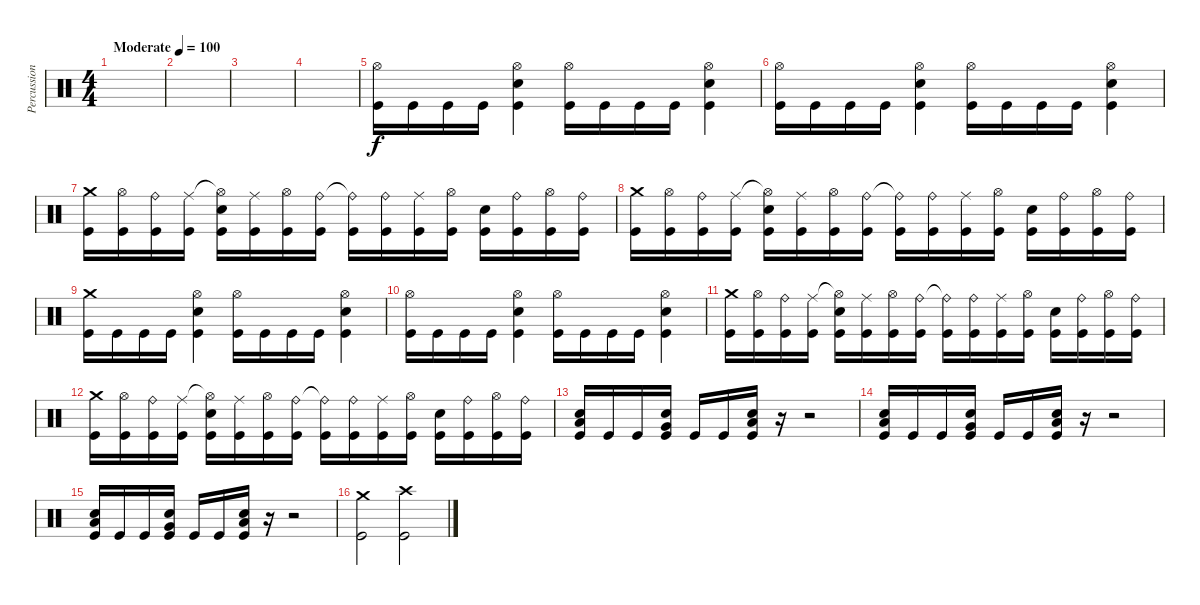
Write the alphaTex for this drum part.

\track ("Percussion" "Percussion") {instrument percussion}
\staff {score}
\articulation defaults
\ts (4 4)
\tempo (100 "Moderate")
\clef neutral
\ks c
|
|
|
|
("Hi-Hat (open)" "Kick (hit)").16 "Kick (hit)".16 "Kick (hit)".16 "Kick (hit)".16 ("Hi-Hat (open)" "Snare (hit) 2" "Kick (hit)").4 ("Hi-Hat (open)" "Kick (hit)").16 "Kick (hit)".16 "Kick (hit)".16 "Kick (hit)".16 ("Hi-Hat (open)" "Snare (hit) 2" "Kick (hit)").4 |
("Hi-Hat (open)" "Kick (hit)").16 "Kick (hit)".16 "Kick (hit)".16 "Kick (hit)".16 ("Hi-Hat (open)" "Snare (hit) 2" "Kick (hit)").4 ("Hi-Hat (open)" "Kick (hit)").16 "Kick (hit)".16 "Kick (hit)".16 "Kick (hit)".16 ("Hi-Hat (open)" "Snare (hit) 2" "Kick (hit)").4 |
("Crash medium (hit)" "Kick (hit)").16 ("Hi-Hat (open)" "Kick (hit)").16 ("Ride (bell)" "Kick (hit)").16 ("Ride (middle)" "Kick (hit)").16 ("Hi-Hat (open)"{t} "Snare (hit) 2" "Kick (hit)").16 ("Ride (middle)" "Kick (hit)").16 ("Hi-Hat (open)" "Kick (hit)").16 ("Ride (bell)" "Kick (hit)").16 ("Ride (bell)"{t} "Kick (hit)").16 ("Ride (bell)" "Kick (hit)").16 ("Ride (middle)" "Kick (hit)").16 ("Hi-Hat (open)" "Kick (hit)").16 ("Snare (hit) 2" "Kick (hit)").16 ("Ride (bell)" "Kick (hit)").16 ("Hi-Hat (open)" "Kick (hit)").16 ("Ride (bell)" "Kick (hit)").16 |
("Crash medium (hit)" "Kick (hit)").16 ("Hi-Hat (open)" "Kick (hit)").16 ("Ride (bell)" "Kick (hit)").16 ("Ride (middle)" "Kick (hit)").16 ("Hi-Hat (open)"{t} "Snare (hit) 2" "Kick (hit)").16 ("Ride (middle)" "Kick (hit)").16 ("Hi-Hat (open)" "Kick (hit)").16 ("Ride (bell)" "Kick (hit)").16 ("Ride (bell)"{t} "Kick (hit)").16 ("Ride (bell)" "Kick (hit)").16 ("Ride (middle)" "Kick (hit)").16 ("Hi-Hat (open)" "Kick (hit)").16 ("Snare (hit) 2" "Kick (hit)").16 ("Ride (bell)" "Kick (hit)").16 ("Hi-Hat (open)" "Kick (hit)").16 ("Ride (bell)" "Kick (hit)").16 |
("Crash medium (hit)" "Kick (hit)").16 "Kick (hit)".16 "Kick (hit)".16 "Kick (hit)".16 ("Hi-Hat (open)" "Snare (hit) 2" "Kick (hit)").4 ("Hi-Hat (open)" "Kick (hit)").16 "Kick (hit)".16 "Kick (hit)".16 "Kick (hit)".16 ("Hi-Hat (open)" "Snare (hit) 2" "Kick (hit)").4 |
("Hi-Hat (open)" "Kick (hit)").16 "Kick (hit)".16 "Kick (hit)".16 "Kick (hit)".16 ("Hi-Hat (open)" "Snare (hit) 2" "Kick (hit)").4 ("Hi-Hat (open)" "Kick (hit)").16 "Kick (hit)".16 "Kick (hit)".16 "Kick (hit)".16 ("Hi-Hat (open)" "Snare (hit) 2" "Kick (hit)").4 |
("Crash medium (hit)" "Kick (hit)").16 ("Hi-Hat (open)" "Kick (hit)").16 ("Ride (bell)" "Kick (hit)").16 ("Ride (middle)" "Kick (hit)").16 ("Hi-Hat (open)"{t} "Snare (hit) 2" "Kick (hit)").16 ("Ride (middle)" "Kick (hit)").16 ("Hi-Hat (open)" "Kick (hit)").16 ("Ride (bell)" "Kick (hit)").16 ("Ride (bell)"{t} "Kick (hit)").16 ("Ride (bell)" "Kick (hit)").16 ("Ride (middle)" "Kick (hit)").16 ("Hi-Hat (open)" "Kick (hit)").16 ("Snare (hit) 2" "Kick (hit)").16 ("Ride (bell)" "Kick (hit)").16 ("Hi-Hat (open)" "Kick (hit)").16 ("Ride (bell)" "Kick (hit)").16 |
("Crash medium (hit)" "Kick (hit)").16 ("Hi-Hat (open)" "Kick (hit)").16 ("Ride (bell)" "Kick (hit)").16 ("Ride (middle)" "Kick (hit)").16 ("Hi-Hat (open)"{t} "Snare (hit) 2" "Kick (hit)").16 ("Ride (middle)" "Kick (hit)").16 ("Hi-Hat (open)" "Kick (hit)").16 ("Ride (bell)" "Kick (hit)").16 ("Ride (bell)"{t} "Kick (hit)").16 ("Ride (bell)" "Kick (hit)").16 ("Ride (middle)" "Kick (hit)").16 ("Hi-Hat (open)" "Kick (hit)").16 ("Snare (hit) 2" "Kick (hit)").16 ("Ride (bell)" "Kick (hit)").16 ("Hi-Hat (open)" "Kick (hit)").16 ("Ride (bell)" "Kick (hit)").16 |
("Snare (hit) 2" "Low Floor Tom (hit)" "Kick (hit)").16 "Kick (hit)".16 "Kick (hit)".16 ("Snare (hit) 2" "Very Low Tom (hit)" "Kick (hit)").16 "Kick (hit)".16 "Kick (hit)".16 ("Snare (hit) 2" "Low Tom (hit)" "Kick (hit)").16 r.16 r.2 |
("Snare (hit) 2" "Low Floor Tom (hit)" "Kick (hit)").16 "Kick (hit)".16 "Kick (hit)".16 ("Snare (hit) 2" "Very Low Tom (hit)" "Kick (hit)").16 "Kick (hit)".16 "Kick (hit)".16 ("Snare (hit) 2" "Low Tom (hit)" "Kick (hit)").16 r.16 r.2 |
("Snare (hit) 2" "Low Floor Tom (hit)" "Kick (hit)").16 "Kick (hit)".16 "Kick (hit)".16 ("Snare (hit) 2" "Very Low Tom (hit)" "Kick (hit)").16 "Kick (hit)".16 "Kick (hit)".16 ("Snare (hit) 2" "Low Tom (hit)" "Kick (hit)").16 r.16 r.2 |
("Crash medium (hit)" "Kick (hit)").2 ("Crash high (hit)" "Kick (hit)").2
